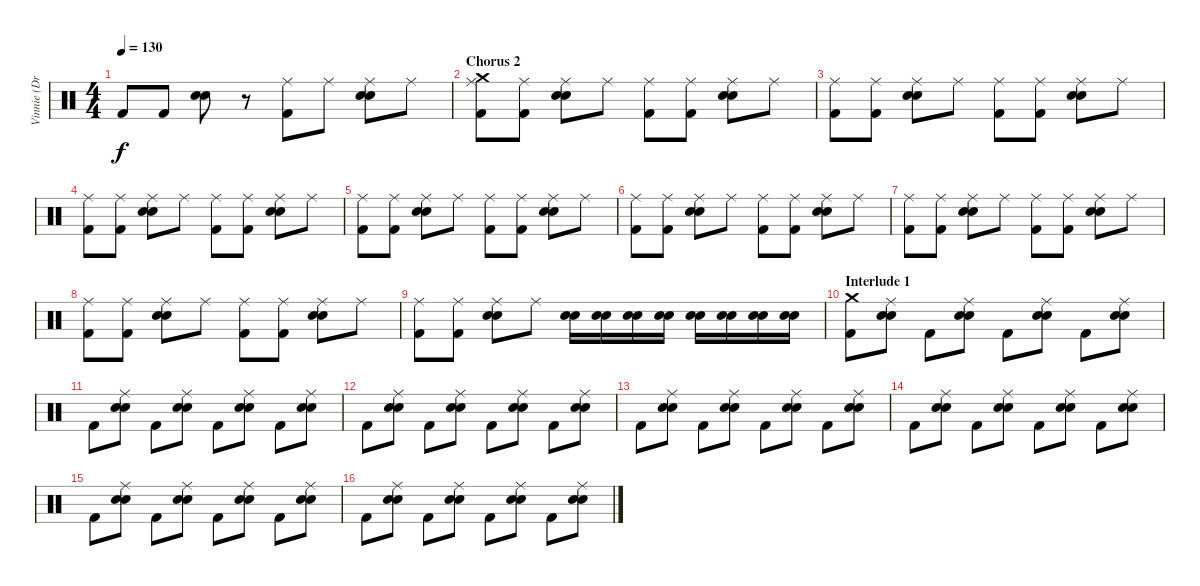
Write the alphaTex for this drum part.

\track ("Vinnie (Drums)" "Vinnie (Dr") {instrument percussion}
\staff {score}
\articulation defaults
\ts (4 4)
\tempo 130
\clef neutral
\ks c "Kick (hit) 2".8{dy f} "Kick (hit) 2".8
("Snare (hit) 2" "Electric Snare (hit)").8 r.8 ("Kick (hit) 2" "Ride (middle)").8 "Ride (middle)".8 ("Snare (hit) 2" "Electric Snare (hit)" "Ride (middle)").8 "Ride (middle)".8 |
\section ("" "Chorus 2")
("Kick (hit) 2" "Ride (middle)" "Crash medium (hit)").8 ("Kick (hit) 2" "Ride (middle)").8 ("Snare (hit) 2" "Electric Snare (hit)" "Ride (middle)").8 "Ride (middle)".8 ("Kick (hit) 2" "Ride (middle)").8 ("Kick (hit) 2" "Ride (middle)").8 ("Snare (hit) 2" "Electric Snare (hit)" "Ride (middle)").8 "Ride (middle)".8 |
("Kick (hit) 2" "Ride (middle)").8 ("Kick (hit) 2" "Ride (middle)").8 ("Snare (hit) 2" "Electric Snare (hit)" "Ride (middle)").8 "Ride (middle)".8 ("Kick (hit) 2" "Ride (middle)").8 ("Kick (hit) 2" "Ride (middle)").8 ("Snare (hit) 2" "Electric Snare (hit)" "Ride (middle)").8 "Ride (middle)".8 |
("Kick (hit) 2" "Ride (middle)").8 ("Kick (hit) 2" "Ride (middle)").8 ("Snare (hit) 2" "Electric Snare (hit)" "Ride (middle)").8 "Ride (middle)".8 ("Kick (hit) 2" "Ride (middle)").8 ("Kick (hit) 2" "Ride (middle)").8 ("Snare (hit) 2" "Electric Snare (hit)" "Ride (middle)").8 "Ride (middle)".8 |
("Kick (hit) 2" "Ride (middle)").8 ("Kick (hit) 2" "Ride (middle)").8 ("Snare (hit) 2" "Electric Snare (hit)" "Ride (middle)").8 "Ride (middle)".8 ("Kick (hit) 2" "Ride (middle)").8 ("Kick (hit) 2" "Ride (middle)").8 ("Snare (hit) 2" "Electric Snare (hit)" "Ride (middle)").8 "Ride (middle)".8 |
("Kick (hit) 2" "Ride (middle)").8 ("Kick (hit) 2" "Ride (middle)").8 ("Snare (hit) 2" "Electric Snare (hit)" "Ride (middle)").8 "Ride (middle)".8 ("Kick (hit) 2" "Ride (middle)").8 ("Kick (hit) 2" "Ride (middle)").8 ("Snare (hit) 2" "Electric Snare (hit)" "Ride (middle)").8 "Ride (middle)".8 |
("Kick (hit) 2" "Ride (middle)").8 ("Kick (hit) 2" "Ride (middle)").8 ("Snare (hit) 2" "Electric Snare (hit)" "Ride (middle)").8 "Ride (middle)".8 ("Kick (hit) 2" "Ride (middle)").8 ("Kick (hit) 2" "Ride (middle)").8 ("Snare (hit) 2" "Electric Snare (hit)" "Ride (middle)").8 "Ride (middle)".8 |
("Kick (hit) 2" "Ride (middle)").8 ("Kick (hit) 2" "Ride (middle)").8 ("Snare (hit) 2" "Electric Snare (hit)" "Ride (middle)").8 "Ride (middle)".8 ("Kick (hit) 2" "Ride (middle)").8 ("Kick (hit) 2" "Ride (middle)").8 ("Snare (hit) 2" "Electric Snare (hit)" "Ride (middle)").8 "Ride (middle)".8 |
("Kick (hit) 2" "Ride (middle)").8 ("Kick (hit) 2" "Ride (middle)").8 ("Snare (hit) 2" "Electric Snare (hit)" "Ride (middle)").8 "Ride (middle)".8 ("Snare (hit) 2" "Electric Snare (hit)").16 ("Snare (hit) 2" "Electric Snare (hit)").16 ("Snare (hit) 2" "Electric Snare (hit)").16 ("Snare (hit) 2" "Electric Snare (hit)").16 ("Snare (hit) 2" "Electric Snare (hit)").16 ("Snare (hit) 2" "Electric Snare (hit)").16 ("Snare (hit) 2" "Electric Snare (hit)").16 ("Snare (hit) 2" "Electric Snare (hit)").16 |
\section ("" "Interlude 1")
("Kick (hit) 2" "Crash medium (hit)").8 ("Snare (hit) 2" "Electric Snare (hit)" "Ride (middle)").8 "Kick (hit) 2".8 ("Snare (hit) 2" "Electric Snare (hit)" "Ride (middle)").8 "Kick (hit) 2".8 ("Snare (hit) 2" "Electric Snare (hit)" "Ride (middle)").8 "Kick (hit) 2".8 ("Snare (hit) 2" "Electric Snare (hit)" "Ride (middle)").8 |
"Kick (hit) 2".8 ("Snare (hit) 2" "Electric Snare (hit)" "Ride (middle)").8 "Kick (hit) 2".8 ("Snare (hit) 2" "Electric Snare (hit)" "Ride (middle)").8 "Kick (hit) 2".8 ("Snare (hit) 2" "Electric Snare (hit)" "Ride (middle)").8 "Kick (hit) 2".8 ("Snare (hit) 2" "Electric Snare (hit)" "Ride (middle)").8 |
"Kick (hit) 2".8 ("Snare (hit) 2" "Electric Snare (hit)" "Ride (middle)").8 "Kick (hit) 2".8 ("Snare (hit) 2" "Electric Snare (hit)" "Ride (middle)").8 "Kick (hit) 2".8 ("Snare (hit) 2" "Electric Snare (hit)" "Ride (middle)").8 "Kick (hit) 2".8 ("Snare (hit) 2" "Electric Snare (hit)" "Ride (middle)").8 |
"Kick (hit) 2".8 ("Snare (hit) 2" "Electric Snare (hit)" "Ride (middle)").8 "Kick (hit) 2".8 ("Snare (hit) 2" "Electric Snare (hit)" "Ride (middle)").8 "Kick (hit) 2".8 ("Snare (hit) 2" "Electric Snare (hit)" "Ride (middle)").8 "Kick (hit) 2".8 ("Snare (hit) 2" "Electric Snare (hit)" "Ride (middle)").8 |
"Kick (hit) 2".8 ("Snare (hit) 2" "Electric Snare (hit)" "Ride (middle)").8 "Kick (hit) 2".8 ("Snare (hit) 2" "Electric Snare (hit)" "Ride (middle)").8 "Kick (hit) 2".8 ("Snare (hit) 2" "Electric Snare (hit)" "Ride (middle)").8 "Kick (hit) 2".8 ("Snare (hit) 2" "Electric Snare (hit)" "Ride (middle)").8 |
"Kick (hit) 2".8 ("Snare (hit) 2" "Electric Snare (hit)" "Ride (middle)").8 "Kick (hit) 2".8 ("Snare (hit) 2" "Electric Snare (hit)" "Ride (middle)").8 "Kick (hit) 2".8 ("Snare (hit) 2" "Electric Snare (hit)" "Ride (middle)").8 "Kick (hit) 2".8 ("Snare (hit) 2" "Electric Snare (hit)" "Ride (middle)").8 |
"Kick (hit) 2".8 ("Snare (hit) 2" "Electric Snare (hit)" "Ride (middle)").8 "Kick (hit) 2".8 ("Snare (hit) 2" "Electric Snare (hit)" "Ride (middle)").8 "Kick (hit) 2".8 ("Snare (hit) 2" "Electric Snare (hit)" "Ride (middle)").8 "Kick (hit) 2".8 ("Snare (hit) 2" "Electric Snare (hit)" "Ride (middle)").8
